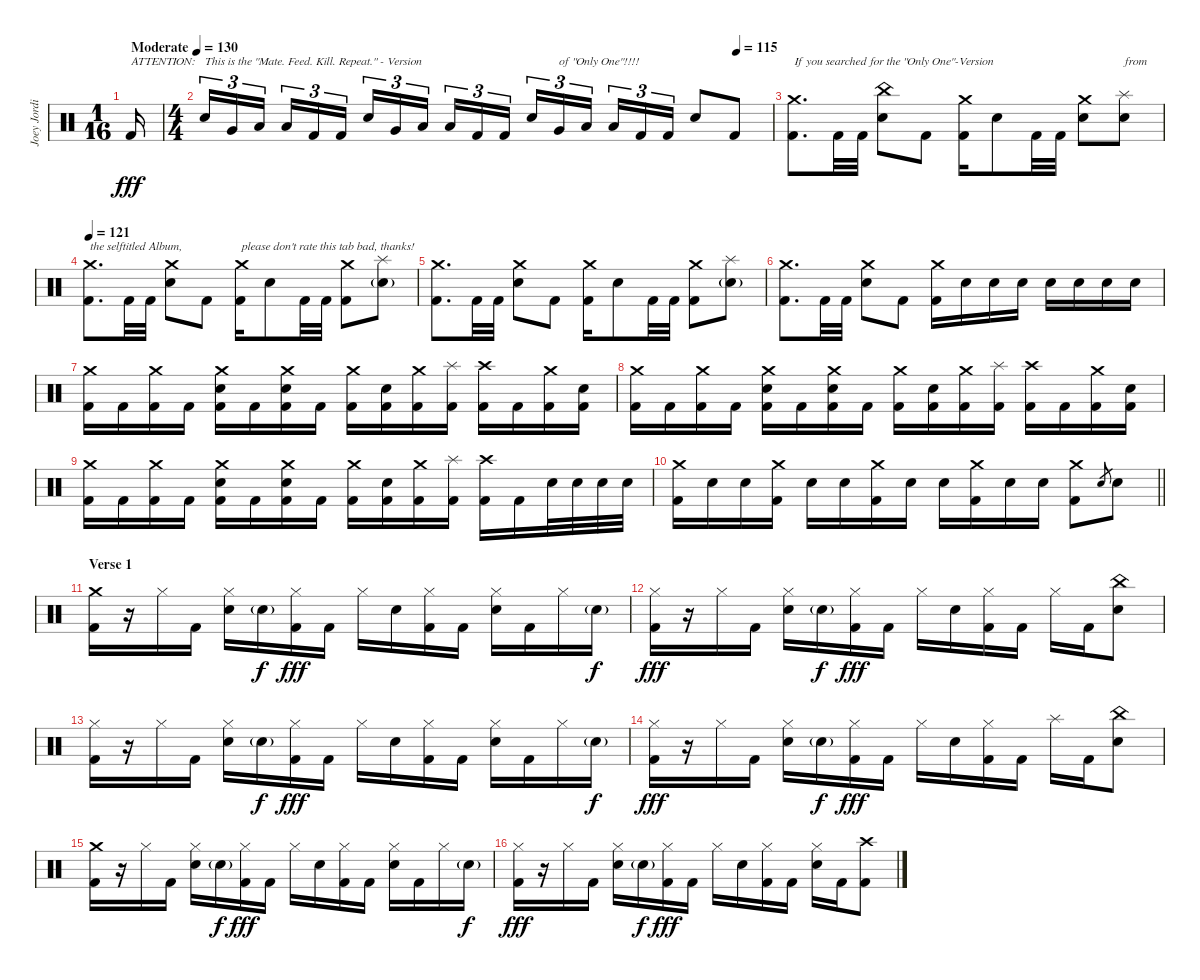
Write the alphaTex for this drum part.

\track ("Joey Jordison" "Joey Jordi") {instrument percussion}
\staff {score}
\articulation defaults
\ts (1 16)
\tempo (130 "Moderate")
\tempo 140
\tempo (130 "Moderate")
\clef neutral
\ks c "Kick (hit) 2".16{txt "ATTENTION:" dy fff}
|
\ts (4 4)
\tempo (115 0.9375)
"Electric Snare (hit)".16{tu (3 2) txt "This is the \"Mate. Feed. Kill. Repeat.\" - Version"} "Very Low Tom (hit)".16{tu (3 2)} "Low Floor Tom (hit)".16{tu (3 2) beam splitsecondary} "Low Floor Tom (hit)".16{tu (3 2)} "Kick (hit) 2".16{tu (3 2)} "Kick (hit) 2".16{tu (3 2)} "Electric Snare (hit)".16{tu (3 2)} "Very Low Tom (hit)".16{tu (3 2)} "Low Floor Tom (hit)".16{tu (3 2) beam splitsecondary} "Low Floor Tom (hit)".16{tu (3 2)} "Kick (hit) 2".16{tu (3 2)} "Kick (hit) 2".16{tu (3 2)} "Electric Snare (hit)".16{tu (3 2)} "Very Low Tom (hit)".16{tu (3 2) txt "of \"Only One\"!!!!"} "Low Floor Tom (hit)".16{tu (3 2) beam splitsecondary} "Low Floor Tom (hit)".16{tu (3 2)} "Kick (hit) 2".16{tu (3 2)} "Kick (hit) 2".16{tu (3 2)} "Electric Snare (hit)".8 "Kick (hit) 2".8 |
("Crash medium (hit)" "Kick (hit) 2").8{d txt "If you searched for the \"Only One\"-Version"} "Kick (hit) 2".32 "Kick (hit) 2".32 ("China (hit)" "Electric Snare (hit)").8 "Kick (hit) 2".8 ("Crash medium (hit)" "Kick (hit) 2").16 "Electric Snare (hit)".8 "Kick (hit) 2".32 "Kick (hit) 2".32 ("Crash medium (hit)" "Electric Snare (hit)").8 ("Splash (hit)" "Electric Snare (hit)").8{txt "from"} |
\tempo 121
("Crash medium (hit)" "Kick (hit) 2").8{d txt "the selftitled Album,"} "Kick (hit) 2".32 "Kick (hit) 2".32 ("Crash medium (hit)" "Electric Snare (hit)").8 "Kick (hit) 2".8 ("Crash medium (hit)" "Kick (hit) 2").16{txt "please don't rate this tab bad, thanks!"} "Electric Snare (hit)".8 "Kick (hit) 2".32 "Kick (hit) 2".32 ("Crash medium (hit)" "Kick (hit) 2").8 ("Splash (hit)" "Electric Snare (hit)"{g}).8 |
("Crash medium (hit)" "Kick (hit) 2").8{d} "Kick (hit) 2".32 "Kick (hit) 2".32 ("Crash medium (hit)" "Electric Snare (hit)").8 "Kick (hit) 2".8 ("Crash medium (hit)" "Kick (hit) 2").16 "Electric Snare (hit)".8 "Kick (hit) 2".32 "Kick (hit) 2".32 ("Crash medium (hit)" "Kick (hit) 2").8 ("Splash (hit)" "Electric Snare (hit)"{g}).8 |
("Crash medium (hit)" "Kick (hit) 2").8{d} "Kick (hit) 2".32 "Kick (hit) 2".32 ("Crash medium (hit)" "Electric Snare (hit)").8 "Kick (hit) 2".8 ("Crash medium (hit)" "Kick (hit) 2").16 "Electric Snare (hit)".16 "Electric Snare (hit)".16 "Electric Snare (hit)".16 "Electric Snare (hit)".16 "Electric Snare (hit)".16 "Electric Snare (hit)".16 "Electric Snare (hit)".16 |
("Crash medium (hit)" "Kick (hit) 2").16 "Kick (hit) 2".16 ("Crash medium (hit)" "Kick (hit) 2").16 "Kick (hit) 2".16 ("Crash medium (hit)" "Electric Snare (hit)" "Kick (hit) 2").16 "Kick (hit) 2".16 ("Crash medium (hit)" "Electric Snare (hit)" "Kick (hit) 2").16 "Kick (hit) 2".16 ("Crash medium (hit)" "Kick (hit) 2").16 ("Electric Snare (hit)" "Kick (hit) 2").16 ("Crash medium (hit)" "Kick (hit) 2").16 ("Splash (hit)" "Kick (hit) 2").16 ("Crash high (hit)" "Kick (hit) 2").16 "Kick (hit) 2".16 ("Crash medium (hit)" "Kick (hit) 2").16 ("Electric Snare (hit)" "Kick (hit) 2").16 |
("Crash medium (hit)" "Kick (hit) 2").16 "Kick (hit) 2".16 ("Crash medium (hit)" "Kick (hit) 2").16 "Kick (hit) 2".16 ("Crash medium (hit)" "Electric Snare (hit)" "Kick (hit) 2").16 "Kick (hit) 2".16 ("Crash medium (hit)" "Electric Snare (hit)" "Kick (hit) 2").16 "Kick (hit) 2".16 ("Crash medium (hit)" "Kick (hit) 2").16 ("Electric Snare (hit)" "Kick (hit) 2").16 ("Crash medium (hit)" "Kick (hit) 2").16 ("Splash (hit)" "Kick (hit) 2").16 ("Crash high (hit)" "Kick (hit) 2").16 "Kick (hit) 2".16 ("Crash medium (hit)" "Kick (hit) 2").16 ("Electric Snare (hit)" "Kick (hit) 2").16 |
("Crash medium (hit)" "Kick (hit) 2").16 "Kick (hit) 2".16 ("Crash medium (hit)" "Kick (hit) 2").16 "Kick (hit) 2".16 ("Crash medium (hit)" "Electric Snare (hit)" "Kick (hit) 2").16 "Kick (hit) 2".16 ("Crash medium (hit)" "Electric Snare (hit)" "Kick (hit) 2").16 "Kick (hit) 2".16 ("Crash medium (hit)" "Kick (hit) 2").16 ("Electric Snare (hit)" "Kick (hit) 2").16 ("Crash medium (hit)" "Kick (hit) 2").16 ("Splash (hit)" "Kick (hit) 2").16 ("Crash high (hit)" "Kick (hit) 2").16 "Kick (hit) 2".16 "Electric Snare (hit)".32 "Electric Snare (hit)".32 "Electric Snare (hit)".32 "Electric Snare (hit)".32 |
\barLineRight lightlight
("Crash medium (hit)" "Kick (hit) 2").16 "Electric Snare (hit)".16 "Electric Snare (hit)".16 ("Crash medium (hit)" "Kick (hit) 2").16 "Electric Snare (hit)".16 "Electric Snare (hit)".16 ("Crash medium (hit)" "Kick (hit) 2").16 "Electric Snare (hit)".16 "Electric Snare (hit)".16 ("Crash medium (hit)" "Kick (hit) 2").16 "Electric Snare (hit)".16 "Electric Snare (hit)".16 ("Crash medium (hit)" "Kick (hit) 2").8 "Electric Snare (hit)".8{gr} "Electric Snare (hit)".8 |
\section ("" "Verse 1")
("Crash medium (hit)" "Kick (hit) 2").16 r.16 "Hi-Hat (closed)".16 "Kick (hit) 2".16 ("Hi-Hat (closed)" "Electric Snare (hit)").16 "Electric Snare (hit)"{g}.16{dy f} ("Hi-Hat (closed)" "Kick (hit) 2").16{dy fff} "Kick (hit) 2".16 "Hi-Hat (closed)".16 "Electric Snare (hit)".16 ("Hi-Hat (closed)" "Kick (hit) 2").16 "Kick (hit) 2".16 ("Hi-Hat (closed)" "Electric Snare (hit)").16 "Kick (hit) 2".16 "Hi-Hat (closed)".16 "Electric Snare (hit)"{g}.16{dy f} |
("Hi-Hat (closed)" "Kick (hit) 2").16{dy fff} r.16 "Hi-Hat (closed)".16 "Kick (hit) 2".16 ("Hi-Hat (closed)" "Electric Snare (hit)").16 "Electric Snare (hit)"{g}.16{dy f} ("Hi-Hat (closed)" "Kick (hit) 2").16{dy fff} "Kick (hit) 2".16 "Hi-Hat (closed)".16 "Electric Snare (hit)".16 ("Hi-Hat (closed)" "Kick (hit) 2").16 "Kick (hit) 2".16 "Hi-Hat (closed)".16 "Kick (hit) 2".16 ("China (hit)" "Electric Snare (hit)").8 |
("Hi-Hat (closed)" "Kick (hit) 2").16 r.16 "Hi-Hat (closed)".16 "Kick (hit) 2".16 ("Hi-Hat (closed)" "Electric Snare (hit)").16 "Electric Snare (hit)"{g}.16{dy f} ("Hi-Hat (closed)" "Kick (hit) 2").16{dy fff} "Kick (hit) 2".16 "Hi-Hat (closed)".16 "Electric Snare (hit)".16 ("Hi-Hat (closed)" "Kick (hit) 2").16 "Kick (hit) 2".16 ("Hi-Hat (closed)" "Electric Snare (hit)").16 "Kick (hit) 2".16 "Hi-Hat (closed)".16 "Electric Snare (hit)"{g}.16{dy f} |
("Hi-Hat (closed)" "Kick (hit) 2").16{dy fff} r.16 "Hi-Hat (closed)".16 "Kick (hit) 2".16 ("Hi-Hat (closed)" "Electric Snare (hit)").16 "Electric Snare (hit)"{g}.16{dy f} ("Hi-Hat (closed)" "Kick (hit) 2").16{dy fff} "Kick (hit) 2".16 "Hi-Hat (closed)".16 "Electric Snare (hit)".16 ("Hi-Hat (closed)" "Kick (hit) 2").16 "Kick (hit) 2".16 "Splash (hit)".16 "Kick (hit) 2".16 ("China (hit)" "Electric Snare (hit)").8 |
("Crash medium (hit)" "Kick (hit) 2").16 r.16 "Hi-Hat (closed)".16 "Kick (hit) 2".16 ("Hi-Hat (closed)" "Electric Snare (hit)").16 "Electric Snare (hit)"{g}.16{dy f} ("Hi-Hat (closed)" "Kick (hit) 2").16{dy fff} "Kick (hit) 2".16 "Hi-Hat (closed)".16 "Electric Snare (hit)".16 ("Hi-Hat (closed)" "Kick (hit) 2").16 "Kick (hit) 2".16 ("Hi-Hat (closed)" "Electric Snare (hit)").16 "Kick (hit) 2".16 "Hi-Hat (closed)".16 "Electric Snare (hit)"{g}.16{dy f} |
("Hi-Hat (closed)" "Kick (hit) 2").16{dy fff} r.16 "Hi-Hat (closed)".16 "Kick (hit) 2".16 ("Hi-Hat (closed)" "Electric Snare (hit)").16 "Electric Snare (hit)"{g}.16{dy f} ("Hi-Hat (closed)" "Kick (hit) 2").16{dy fff} "Kick (hit) 2".16 "Hi-Hat (closed)".16 "Electric Snare (hit)".16 ("Hi-Hat (closed)" "Kick (hit) 2").16 "Kick (hit) 2".16 ("Hi-Hat (closed)" "Electric Snare (hit)").16 "Kick (hit) 2".16 ("Crash high (hit)" "Kick (hit) 2").8
